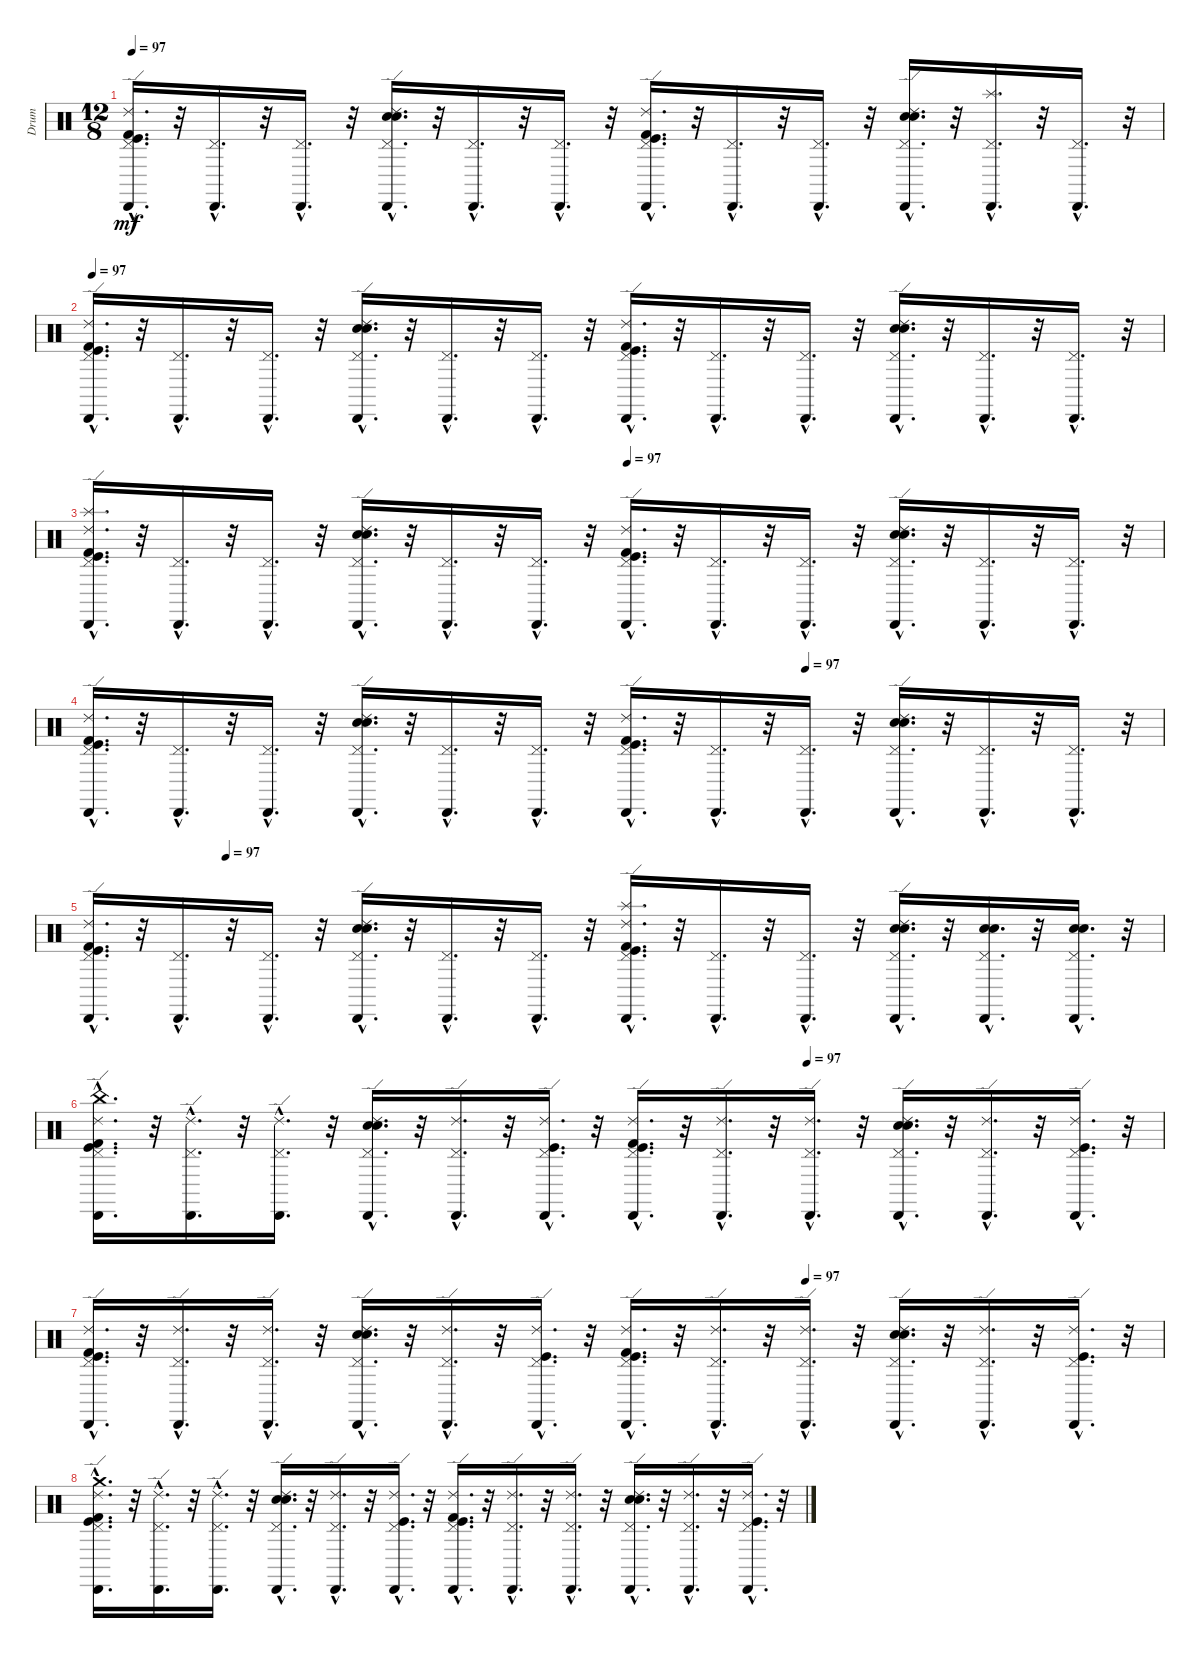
\track ("Drum" "Drum") {instrument percussion}
\staff {score}
\articulation defaults
\ts (12 8)
\tempo 97
\clef neutral
\ks c
("Pedal Hi-Hat (hit)"{hac} "Kick (hit)"{hac} "Cabasa (hit)"{hac} "Ride (edge) 2"{hac} "Kick (hit) 2"{hac}).16{d dy mf} r.32 ("Pedal Hi-Hat (hit)"{hac} "Cabasa (hit)"{hac}).16{d} r.32 ("Pedal Hi-Hat (hit)"{hac} "Cabasa (hit)"{hac}).16{d} r.32 ("Pedal Hi-Hat (hit)"{hac} "Snare (hit) 2"{hac} "Electric Snare (hit)"{hac} "Cabasa (hit)"{hac} "Ride (edge) 2"{hac}).16{d} r.32 ("Pedal Hi-Hat (hit)"{hac} "Cabasa (hit)"{hac}).16{d} r.32 ("Pedal Hi-Hat (hit)"{hac} "Cabasa (hit)"{hac}).16{d} r.32 ("Pedal Hi-Hat (hit)"{hac} "Kick (hit)"{hac} "Cabasa (hit)"{hac} "Ride (edge) 2"{hac} "Kick (hit) 2"{hac}).16{d} r.32 ("Pedal Hi-Hat (hit)"{hac} "Cabasa (hit)"{hac}).16{d} r.32 ("Pedal Hi-Hat (hit)"{hac} "Cabasa (hit)"{hac}).16{d} r.32 ("Pedal Hi-Hat (hit)"{hac} "Snare (hit) 2"{hac} "Electric Snare (hit)"{hac} "Cabasa (hit)"{hac} "Ride (edge) 2"{hac}).16{d} r.32 ("Splash (hit)"{hac} "Pedal Hi-Hat (hit)"{hac} "Cabasa (hit)"{hac}).16{d} r.32 ("Pedal Hi-Hat (hit)"{hac} "Cabasa (hit)"{hac}).16{d} r.32 |
\tempo 97
("Kick (hit)"{hac} "Cabasa (hit)"{hac} "Pedal Hi-Hat (hit)"{hac} "Kick (hit) 2"{hac} "Ride (edge) 2"{hac}).16{d} r.32 ("Cabasa (hit)"{hac} "Pedal Hi-Hat (hit)"{hac}).16{d} r.32 ("Cabasa (hit)"{hac} "Pedal Hi-Hat (hit)"{hac}).16{d} r.32 ("Electric Snare (hit)"{hac} "Cabasa (hit)"{hac} "Snare (hit) 2"{hac} "Ride (edge) 2"{hac} "Pedal Hi-Hat (hit)"{hac}).16{d} r.32 ("Pedal Hi-Hat (hit)"{hac} "Cabasa (hit)"{hac}).16{d} r.32 ("Cabasa (hit)"{hac} "Pedal Hi-Hat (hit)"{hac}).16{d} r.32 ("Cabasa (hit)"{hac} "Kick (hit)"{hac} "Kick (hit) 2"{hac} "Ride (edge) 2"{hac} "Pedal Hi-Hat (hit)"{hac}).16{d} r.32 ("Cabasa (hit)"{hac} "Pedal Hi-Hat (hit)"{hac}).16{d} r.32 ("Cabasa (hit)"{hac} "Pedal Hi-Hat (hit)"{hac}).16{d} r.32 ("Snare (hit) 2"{hac} "Electric Snare (hit)"{hac} "Pedal Hi-Hat (hit)"{hac} "Cabasa (hit)"{hac} "Ride (edge) 2"{hac}).16{d} r.32 ("Pedal Hi-Hat (hit)"{hac} "Cabasa (hit)"{hac}).16{d} r.32 ("Cabasa (hit)"{hac} "Pedal Hi-Hat (hit)"{hac}).16{d} r.32 |
\tempo (97 0.5)
("Splash (hit)"{hac} "Ride (edge) 2"{hac} "Kick (hit) 2"{hac} "Pedal Hi-Hat (hit)"{hac} "Kick (hit)"{hac} "Cabasa (hit)"{hac}).16{d} r.32 ("Cabasa (hit)"{hac} "Pedal Hi-Hat (hit)"{hac}).16{d} r.32 ("Cabasa (hit)"{hac} "Pedal Hi-Hat (hit)"{hac}).16{d} r.32 ("Cabasa (hit)"{hac} "Ride (edge) 2"{hac} "Snare (hit) 2"{hac} "Electric Snare (hit)"{hac} "Pedal Hi-Hat (hit)"{hac}).16{d} r.32 ("Pedal Hi-Hat (hit)"{hac} "Cabasa (hit)"{hac}).16{d} r.32 ("Pedal Hi-Hat (hit)"{hac} "Cabasa (hit)"{hac}).16{d} r.32 ("Cabasa (hit)"{hac} "Kick (hit)"{hac} "Kick (hit) 2"{hac} "Ride (edge) 2"{hac} "Pedal Hi-Hat (hit)"{hac}).16{d} r.32 ("Pedal Hi-Hat (hit)"{hac} "Cabasa (hit)"{hac}).16{d} r.32 ("Cabasa (hit)"{hac} "Pedal Hi-Hat (hit)"{hac}).16{d} r.32 ("Electric Snare (hit)"{hac} "Snare (hit) 2"{hac} "Ride (edge) 2"{hac} "Pedal Hi-Hat (hit)"{hac} "Cabasa (hit)"{hac}).16{d} r.32 ("Pedal Hi-Hat (hit)"{hac} "Cabasa (hit)"{hac}).16{d} r.32 ("Cabasa (hit)"{hac} "Pedal Hi-Hat (hit)"{hac}).16{d} r.32 |
\tempo (97 0.6666666666666666)
("Kick (hit)"{hac} "Cabasa (hit)"{hac} "Kick (hit) 2"{hac} "Ride (edge) 2"{hac} "Pedal Hi-Hat (hit)"{hac}).16{d} r.32 ("Pedal Hi-Hat (hit)"{hac} "Cabasa (hit)"{hac}).16{d} r.32 ("Pedal Hi-Hat (hit)"{hac} "Cabasa (hit)"{hac}).16{d} r.32 ("Pedal Hi-Hat (hit)"{hac} "Cabasa (hit)"{hac} "Snare (hit) 2"{hac} "Electric Snare (hit)"{hac} "Ride (edge) 2"{hac}).16{d} r.32 ("Cabasa (hit)"{hac} "Pedal Hi-Hat (hit)"{hac}).16{d} r.32 ("Cabasa (hit)"{hac} "Pedal Hi-Hat (hit)"{hac}).16{d} r.32 ("Ride (edge) 2"{hac} "Kick (hit)"{hac} "Pedal Hi-Hat (hit)"{hac} "Cabasa (hit)"{hac} "Kick (hit) 2"{hac}).16{d} r.32 ("Cabasa (hit)"{hac} "Pedal Hi-Hat (hit)"{hac}).16{d} r.32 ("Pedal Hi-Hat (hit)"{hac} "Cabasa (hit)"{hac}).16{d} r.32 ("Ride (edge) 2"{hac} "Snare (hit) 2"{hac} "Electric Snare (hit)"{hac} "Cabasa (hit)"{hac} "Pedal Hi-Hat (hit)"{hac}).16{d} r.32 ("Cabasa (hit)"{hac} "Pedal Hi-Hat (hit)"{hac}).16{d} r.32 ("Pedal Hi-Hat (hit)"{hac} "Cabasa (hit)"{hac}).16{d} r.32 |
\tempo (97 0.125)
("Kick (hit) 2"{hac} "Ride (edge) 2"{hac} "Cabasa (hit)"{hac} "Kick (hit)"{hac} "Pedal Hi-Hat (hit)"{hac}).16{d} r.32 ("Cabasa (hit)"{hac} "Pedal Hi-Hat (hit)"{hac}).16{d} r.32 ("Cabasa (hit)"{hac} "Pedal Hi-Hat (hit)"{hac}).16{d} r.32 ("Ride (edge) 2"{hac} "Cabasa (hit)"{hac} "Electric Snare (hit)"{hac} "Snare (hit) 2"{hac} "Pedal Hi-Hat (hit)"{hac}).16{d} r.32 ("Cabasa (hit)"{hac} "Pedal Hi-Hat (hit)"{hac}).16{d} r.32 ("Cabasa (hit)"{hac} "Pedal Hi-Hat (hit)"{hac}).16{d} r.32 ("Splash (hit)"{hac} "Kick (hit) 2"{hac} "Ride (edge) 2"{hac} "Cabasa (hit)"{hac} "Kick (hit)"{hac} "Pedal Hi-Hat (hit)"{hac}).16{d} r.32 ("Cabasa (hit)"{hac} "Pedal Hi-Hat (hit)"{hac}).16{d} r.32 ("Cabasa (hit)"{hac} "Pedal Hi-Hat (hit)"{hac}).16{d} r.32 ("Ride (edge) 2"{hac} "Cabasa (hit)"{hac} "Electric Snare (hit)"{hac} "Snare (hit) 2"{hac} "Pedal Hi-Hat (hit)"{hac}).16{d} r.32 ("Snare (hit) 2"{hac} "Electric Snare (hit)"{hac} "Cabasa (hit)"{hac} "Pedal Hi-Hat (hit)"{hac}).16{d} r.32 ("Snare (hit) 2"{hac} "Electric Snare (hit)"{hac} "Cabasa (hit)"{hac} "Pedal Hi-Hat (hit)"{hac}).16{d} r.32 |
\tempo (97 0.6666666666666666)
("Kick (hit)"{hac} "Pedal Hi-Hat (hit)"{hac} "Cabasa (hit)"{hac} "Ride (edge) 2"{hac} "Kick (hit) 2"{hac} "China (hit)"{hac}).16{d} r.32 ("Cabasa (hit)"{hac} "Pedal Hi-Hat (hit)"{hac} "Ride (edge) 2"{hac}).16{d} r.32 ("Pedal Hi-Hat (hit)"{hac} "Cabasa (hit)"{hac} "Ride (edge) 2"{hac}).16{d} r.32 ("Pedal Hi-Hat (hit)"{hac} "Electric Snare (hit)"{hac} "Snare (hit) 2"{hac} "Cabasa (hit)"{hac} "Ride (edge) 2"{hac}).16{d} r.32 ("Cabasa (hit)"{hac} "Pedal Hi-Hat (hit)"{hac} "Ride (edge) 2"{hac}).16{d} r.32 ("Cabasa (hit)"{hac} "Pedal Hi-Hat (hit)"{hac} "Ride (edge) 2"{hac} "Kick (hit)"{hac}).16{d} r.32 ("Kick (hit) 2"{hac} "Kick (hit)"{hac} "Ride (edge) 2"{hac} "Pedal Hi-Hat (hit)"{hac} "Cabasa (hit)"{hac}).16{d} r.32 ("Cabasa (hit)"{hac} "Pedal Hi-Hat (hit)"{hac} "Ride (edge) 2"{hac}).16{d} r.32 ("Cabasa (hit)"{hac} "Pedal Hi-Hat (hit)"{hac} "Ride (edge) 2"{hac}).16{d} r.32 ("Ride (edge) 2"{hac} "Cabasa (hit)"{hac} "Pedal Hi-Hat (hit)"{hac} "Electric Snare (hit)"{hac} "Snare (hit) 2"{hac}).16{d} r.32 ("Cabasa (hit)"{hac} "Pedal Hi-Hat (hit)"{hac} "Ride (edge) 2"{hac}).16{d} r.32 ("Cabasa (hit)"{hac} "Pedal Hi-Hat (hit)"{hac} "Ride (edge) 2"{hac} "Kick (hit)"{hac}).16{d} r.32 |
\tempo (97 0.6666666666666666)
("Kick (hit) 2"{hac} "Ride (edge) 2"{hac} "Cabasa (hit)"{hac} "Pedal Hi-Hat (hit)"{hac} "Kick (hit)"{hac}).16{d} r.32 ("Ride (edge) 2"{hac} "Pedal Hi-Hat (hit)"{hac} "Cabasa (hit)"{hac}).16{d} r.32 ("Ride (edge) 2"{hac} "Cabasa (hit)"{hac} "Pedal Hi-Hat (hit)"{hac}).16{d} r.32 ("Ride (edge) 2"{hac} "Cabasa (hit)"{hac} "Snare (hit) 2"{hac} "Electric Snare (hit)"{hac} "Pedal Hi-Hat (hit)"{hac}).16{d} r.32 ("Ride (edge) 2"{hac} "Pedal Hi-Hat (hit)"{hac} "Cabasa (hit)"{hac}).16{d} r.32 ("Ride (edge) 2"{hac} "Pedal Hi-Hat (hit)"{hac} "Cabasa (hit)"{hac} "Kick (hit)"{hac}).16{d} r.32 ("Cabasa (hit)"{hac} "Pedal Hi-Hat (hit)"{hac} "Ride (edge) 2"{hac} "Kick (hit)"{hac} "Kick (hit) 2"{hac}).16{d} r.32 ("Ride (edge) 2"{hac} "Pedal Hi-Hat (hit)"{hac} "Cabasa (hit)"{hac}).16{d} r.32 ("Ride (edge) 2"{hac} "Pedal Hi-Hat (hit)"{hac} "Cabasa (hit)"{hac}).16{d} r.32 ("Snare (hit) 2"{hac} "Electric Snare (hit)"{hac} "Pedal Hi-Hat (hit)"{hac} "Cabasa (hit)"{hac} "Ride (edge) 2"{hac}).16{d} r.32 ("Ride (edge) 2"{hac} "Pedal Hi-Hat (hit)"{hac} "Cabasa (hit)"{hac}).16{d} r.32 ("Ride (edge) 2"{hac} "Pedal Hi-Hat (hit)"{hac} "Cabasa (hit)"{hac} "Kick (hit)"{hac}).16{d} r.32 |
("Crash medium (hit)"{hac} "Kick (hit) 2"{hac} "Ride (edge) 2"{hac} "Cabasa (hit)"{hac} "Pedal Hi-Hat (hit)"{hac} "Kick (hit)"{hac}).16{d} r.32 ("Ride (edge) 2"{hac} "Pedal Hi-Hat (hit)"{hac} "Cabasa (hit)"{hac}).16{d} r.32 ("Ride (edge) 2"{hac} "Cabasa (hit)"{hac} "Pedal Hi-Hat (hit)"{hac}).16{d} r.32 ("Ride (edge) 2"{hac} "Cabasa (hit)"{hac} "Snare (hit) 2"{hac} "Electric Snare (hit)"{hac} "Pedal Hi-Hat (hit)"{hac}).16{d} r.32 ("Ride (edge) 2"{hac} "Pedal Hi-Hat (hit)"{hac} "Cabasa (hit)"{hac}).16{d} r.32 ("Kick (hit)"{hac} "Ride (edge) 2"{hac} "Pedal Hi-Hat (hit)"{hac} "Cabasa (hit)"{hac}).16{d} r.32 ("Cabasa (hit)"{hac} "Pedal Hi-Hat (hit)"{hac} "Ride (edge) 2"{hac} "Kick (hit)"{hac} "Kick (hit) 2"{hac}).16{d} r.32 ("Ride (edge) 2"{hac} "Pedal Hi-Hat (hit)"{hac} "Cabasa (hit)"{hac}).16{d} r.32 ("Ride (edge) 2"{hac} "Pedal Hi-Hat (hit)"{hac} "Cabasa (hit)"{hac}).16{d} r.32 ("Snare (hit) 2"{hac} "Electric Snare (hit)"{hac} "Pedal Hi-Hat (hit)"{hac} "Cabasa (hit)"{hac} "Ride (edge) 2"{hac}).16{d} r.32 ("Ride (edge) 2"{hac} "Pedal Hi-Hat (hit)"{hac} "Cabasa (hit)"{hac}).16{d} r.32 ("Kick (hit)"{hac} "Ride (edge) 2"{hac} "Pedal Hi-Hat (hit)"{hac} "Cabasa (hit)"{hac}).16{d} r.32
